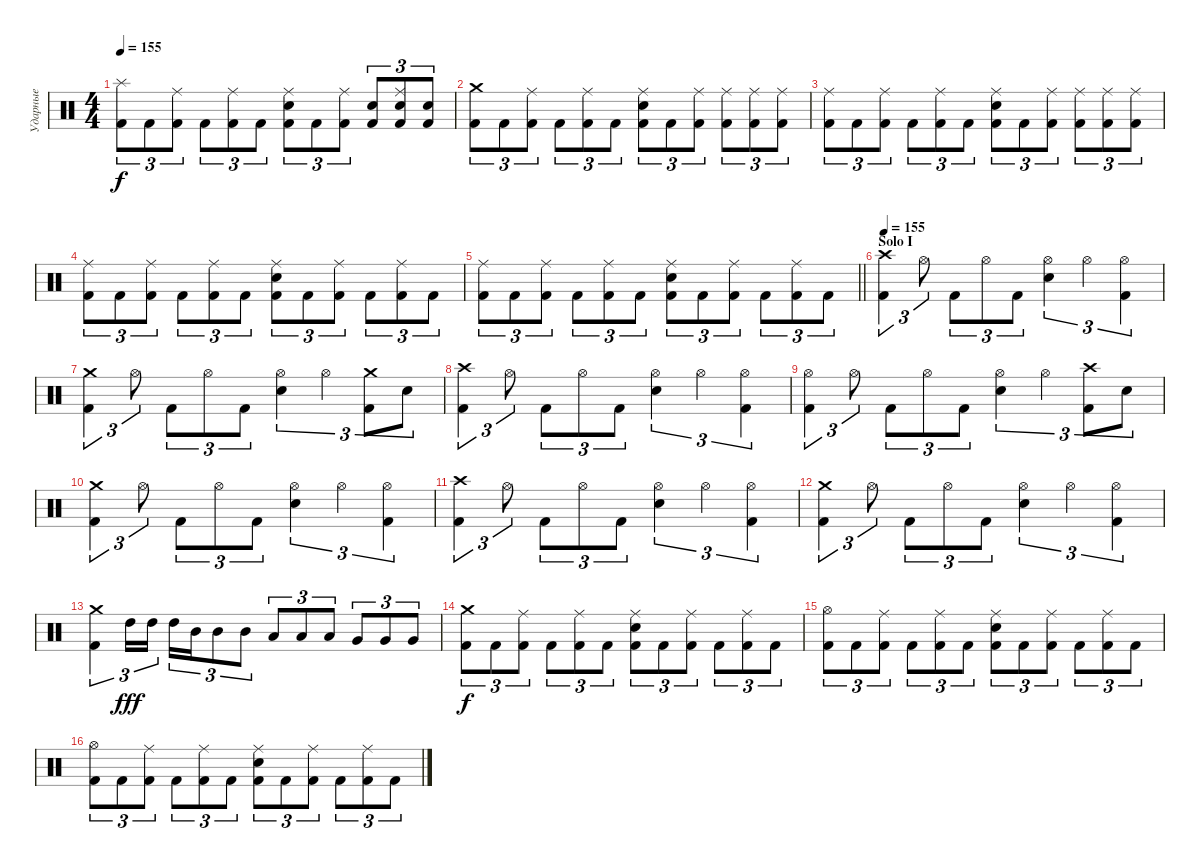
\track ("Ударные" "Ударные") {instrument percussion}
\staff {score}
\articulation defaults
\ts (4 4)
\tempo 155
\clef neutral
\ks c
("Kick (hit) 2" "Splash (hit)").8{tu (3 2) dy f} "Kick (hit) 2".8{tu (3 2)} ("Kick (hit) 2" "Ride (middle)").8{tu (3 2)} "Kick (hit) 2".8{tu (3 2)} ("Kick (hit) 2" "Ride (middle)").8{tu (3 2)} "Kick (hit) 2".8{tu (3 2)} ("Kick (hit) 2" "Electric Snare (hit)" "Ride (middle)").8{tu (3 2)} "Kick (hit) 2".8{tu (3 2)} ("Kick (hit) 2" "Ride (middle)").8{tu (3 2)} ("Kick (hit) 2" "Electric Snare (hit)").8{tu (3 2)} ("Kick (hit) 2" "Electric Snare (hit)" "Ride (middle)").8{tu (3 2)} ("Kick (hit) 2" "Electric Snare (hit)").8{tu (3 2)} |
("Kick (hit) 2" "Crash medium (hit)").8{tu (3 2)} "Kick (hit) 2".8{tu (3 2)} ("Kick (hit) 2" "Ride (middle)").8{tu (3 2)} "Kick (hit) 2".8{tu (3 2)} ("Kick (hit) 2" "Ride (middle)").8{tu (3 2)} "Kick (hit) 2".8{tu (3 2)} ("Kick (hit) 2" "Electric Snare (hit)" "Ride (middle)").8{tu (3 2)} "Kick (hit) 2".8{tu (3 2)} ("Kick (hit) 2" "Ride (middle)").8{tu (3 2)} ("Kick (hit) 2" "Ride (middle)").8{tu (3 2)} ("Kick (hit) 2" "Ride (middle)").8{tu (3 2)} ("Kick (hit) 2" "Ride (middle)").8{tu (3 2)} |
("Kick (hit) 2" "Ride (middle)").8{tu (3 2)} "Kick (hit) 2".8{tu (3 2)} ("Kick (hit) 2" "Ride (middle)").8{tu (3 2)} "Kick (hit) 2".8{tu (3 2)} ("Kick (hit) 2" "Ride (middle)").8{tu (3 2)} "Kick (hit) 2".8{tu (3 2)} ("Kick (hit) 2" "Electric Snare (hit)" "Ride (middle)").8{tu (3 2)} "Kick (hit) 2".8{tu (3 2)} ("Kick (hit) 2" "Ride (middle)").8{tu (3 2)} ("Kick (hit) 2" "Ride (middle)").8{tu (3 2)} ("Kick (hit) 2" "Ride (middle)").8{tu (3 2)} ("Kick (hit) 2" "Ride (middle)").8{tu (3 2)} |
("Kick (hit) 2" "Ride (middle)").8{tu (3 2)} "Kick (hit) 2".8{tu (3 2)} ("Kick (hit) 2" "Ride (middle)").8{tu (3 2)} "Kick (hit) 2".8{tu (3 2)} ("Kick (hit) 2" "Ride (middle)").8{tu (3 2)} "Kick (hit) 2".8{tu (3 2)} ("Kick (hit) 2" "Electric Snare (hit)" "Ride (middle)").8{tu (3 2)} "Kick (hit) 2".8{tu (3 2)} ("Kick (hit) 2" "Ride (middle)").8{tu (3 2)} "Kick (hit) 2".8{tu (3 2)} ("Kick (hit) 2" "Ride (middle)").8{tu (3 2)} "Kick (hit) 2".8{tu (3 2)} |
\barLineRight lightlight
("Kick (hit) 2" "Ride (middle)").8{tu (3 2)} "Kick (hit) 2".8{tu (3 2)} ("Kick (hit) 2" "Ride (middle)").8{tu (3 2)} "Kick (hit) 2".8{tu (3 2)} ("Kick (hit) 2" "Ride (middle)").8{tu (3 2)} "Kick (hit) 2".8{tu (3 2)} ("Kick (hit) 2" "Electric Snare (hit)" "Ride (middle)").8{tu (3 2)} "Kick (hit) 2".8{tu (3 2)} ("Kick (hit) 2" "Ride (middle)").8{tu (3 2)} "Kick (hit) 2".8{tu (3 2)} ("Kick (hit) 2" "Ride (middle)").8{tu (3 2)} "Kick (hit) 2".8{tu (3 2)} |
\section ("" "Solo I")
\tempo 155
("Kick (hit) 2" "Crash high (hit)").4{tu (3 2)} "Hi-Hat (open)".8{tu (3 2)} "Kick (hit) 2".8{tu (3 2)} "Hi-Hat (open)".8{tu (3 2)} "Kick (hit) 2".8{tu (3 2)} ("Electric Snare (hit)" "Hi-Hat (open)").4{tu (3 2)} "Hi-Hat (open)".4{tu (3 2)} ("Kick (hit) 2" "Hi-Hat (open)").4{tu (3 2)} |
("Kick (hit) 2" "Crash medium (hit)").4{tu (3 2)} "Hi-Hat (open)".8{tu (3 2)} "Kick (hit) 2".8{tu (3 2)} "Hi-Hat (open)".8{tu (3 2)} "Kick (hit) 2".8{tu (3 2)} ("Electric Snare (hit)" "Hi-Hat (open)").4{tu (3 2)} "Hi-Hat (open)".4{tu (3 2)} ("Kick (hit) 2" "Crash medium (hit)").8{tu (3 2)} "Electric Snare (hit)".8{tu (3 2)} |
("Kick (hit) 2" "Crash high (hit)").4{tu (3 2)} "Hi-Hat (open)".8{tu (3 2)} "Kick (hit) 2".8{tu (3 2)} "Hi-Hat (open)".8{tu (3 2)} "Kick (hit) 2".8{tu (3 2)} ("Electric Snare (hit)" "Hi-Hat (open)").4{tu (3 2)} "Hi-Hat (open)".4{tu (3 2)} ("Kick (hit) 2" "Hi-Hat (open)").4{tu (3 2)} |
("Kick (hit) 2" "Hi-Hat (open)").4{tu (3 2)} "Hi-Hat (open)".8{tu (3 2)} "Kick (hit) 2".8{tu (3 2)} "Hi-Hat (open)".8{tu (3 2)} "Kick (hit) 2".8{tu (3 2)} ("Electric Snare (hit)" "Hi-Hat (open)").4{tu (3 2)} "Hi-Hat (open)".4{tu (3 2)} ("Kick (hit) 2" "Crash high (hit)").8{tu (3 2)} "Electric Snare (hit)".8{tu (3 2)} |
("Kick (hit) 2" "Crash medium (hit)").4{tu (3 2)} "Hi-Hat (open)".8{tu (3 2)} "Kick (hit) 2".8{tu (3 2)} "Hi-Hat (open)".8{tu (3 2)} "Kick (hit) 2".8{tu (3 2)} ("Electric Snare (hit)" "Hi-Hat (open)").4{tu (3 2)} "Hi-Hat (open)".4{tu (3 2)} ("Kick (hit) 2" "Hi-Hat (open)").4{tu (3 2)} |
("Kick (hit) 2" "Crash high (hit)").4{tu (3 2)} "Hi-Hat (open)".8{tu (3 2)} "Kick (hit) 2".8{tu (3 2)} "Hi-Hat (open)".8{tu (3 2)} "Kick (hit) 2".8{tu (3 2)} ("Electric Snare (hit)" "Hi-Hat (open)").4{tu (3 2)} "Hi-Hat (open)".4{tu (3 2)} ("Kick (hit) 2" "Hi-Hat (open)").4{tu (3 2)} |
("Kick (hit) 2" "Crash medium (hit)").4{tu (3 2)} "Hi-Hat (open)".8{tu (3 2)} "Kick (hit) 2".8{tu (3 2)} "Hi-Hat (open)".8{tu (3 2)} "Kick (hit) 2".8{tu (3 2)} ("Electric Snare (hit)" "Hi-Hat (open)").4{tu (3 2)} "Hi-Hat (open)".4{tu (3 2)} ("Kick (hit) 2" "Hi-Hat (open)").4{tu (3 2)} |
("Kick (hit) 2" "Crash medium (hit)").4{tu (3 2)} "High Tom (hit)".16{tu (3 2) dy fff} "High Tom (hit)".16{tu (3 2)} "High Tom (hit)".16{tu (3 2)} "Mid Tom (hit)".16{tu (3 2)} "Mid Tom (hit)".8{tu (3 2)} "Mid Tom (hit)".8{tu (3 2)} "Low Tom (hit)".8{tu (3 2)} "Low Tom (hit)".8{tu (3 2)} "Low Tom (hit)".8{tu (3 2)} "Very Low Tom (hit)".8{tu (3 2)} "Very Low Tom (hit)".8{tu (3 2)} "Very Low Tom (hit)".8{tu (3 2)} |
("Kick (hit) 2" "Crash medium (hit)").8{tu (3 2) dy f} "Kick (hit) 2".8{tu (3 2)} ("Kick (hit) 2" "Ride (middle)").8{tu (3 2)} "Kick (hit) 2".8{tu (3 2)} ("Kick (hit) 2" "Ride (middle)").8{tu (3 2)} "Kick (hit) 2".8{tu (3 2)} ("Kick (hit) 2" "Electric Snare (hit)" "Ride (middle)").8{tu (3 2)} "Kick (hit) 2".8{tu (3 2)} ("Kick (hit) 2" "Ride (middle)").8{tu (3 2)} "Kick (hit) 2".8{tu (3 2)} ("Kick (hit) 2" "Ride (middle)").8{tu (3 2)} "Kick (hit) 2".8{tu (3 2)} |
("Kick (hit) 2" "Hi-Hat (open)").8{tu (3 2)} "Kick (hit) 2".8{tu (3 2)} ("Kick (hit) 2" "Ride (middle)").8{tu (3 2)} "Kick (hit) 2".8{tu (3 2)} ("Kick (hit) 2" "Ride (middle)").8{tu (3 2)} "Kick (hit) 2".8{tu (3 2)} ("Kick (hit) 2" "Electric Snare (hit)" "Ride (middle)").8{tu (3 2)} "Kick (hit) 2".8{tu (3 2)} ("Kick (hit) 2" "Ride (middle)").8{tu (3 2)} "Kick (hit) 2".8{tu (3 2)} ("Kick (hit) 2" "Ride (middle)").8{tu (3 2)} "Kick (hit) 2".8{tu (3 2)} |
("Kick (hit) 2" "Hi-Hat (open)").8{tu (3 2)} "Kick (hit) 2".8{tu (3 2)} ("Kick (hit) 2" "Ride (middle)").8{tu (3 2)} "Kick (hit) 2".8{tu (3 2)} ("Kick (hit) 2" "Ride (middle)").8{tu (3 2)} "Kick (hit) 2".8{tu (3 2)} ("Kick (hit) 2" "Electric Snare (hit)" "Ride (middle)").8{tu (3 2)} "Kick (hit) 2".8{tu (3 2)} ("Kick (hit) 2" "Ride (middle)").8{tu (3 2)} "Kick (hit) 2".8{tu (3 2)} ("Kick (hit) 2" "Ride (middle)").8{tu (3 2)} "Kick (hit) 2".8{tu (3 2)}
